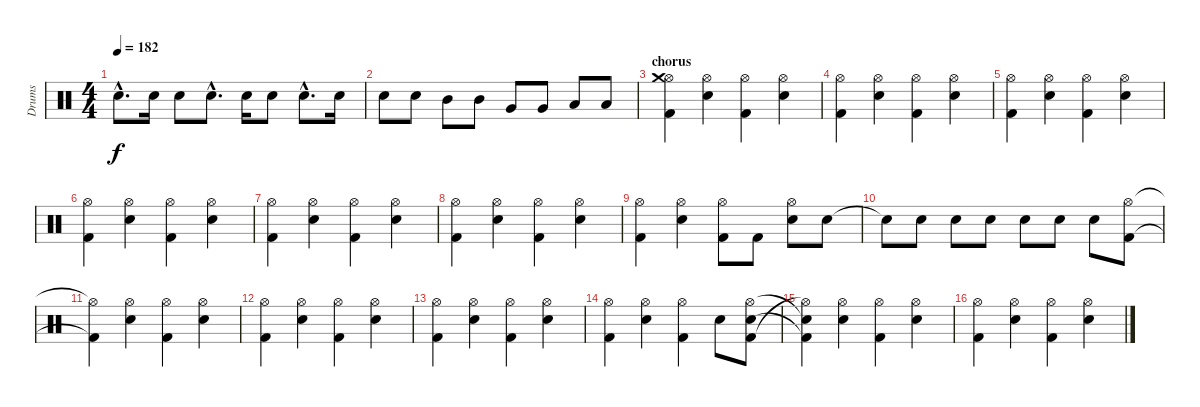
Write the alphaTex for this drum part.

\track ("Drums" "Drums") {instrument percussion}
\staff {score}
\articulation defaults
\ts (4 4)
\tempo 182
\clef neutral
\ks c "Electric Snare (hit)"{hac}.8{d dy f} "Snare (hit) 2".16 "Snare (hit) 2".8 "Snare (hit) 2"{hac}.8{d} "Electric Snare (hit)".16 "Snare (hit) 2".8 "Snare (hit) 2"{hac}.8{d} "Snare (hit) 2".16
|
"Electric Snare (hit)".8 "Electric Snare (hit)".8 "Mid Tom (hit)".8 "Mid Tom (hit)".8 "Very Low Tom (hit)".8 "Very Low Tom (hit)".8 "Low Floor Tom (hit)".8 "Low Floor Tom (hit)".8 |
\section ("" "chorus")
("Kick (hit) 2" "Hi-Hat (open)" "Crash medium (hit)").4 ("Snare (hit) 2" "Hi-Hat (open)").4 ("Kick (hit) 2" "Hi-Hat (open)").4 ("Snare (hit) 2" "Hi-Hat (open)").4 |
("Kick (hit) 2" "Hi-Hat (open)").4 ("Snare (hit) 2" "Hi-Hat (open)").4 ("Kick (hit) 2" "Hi-Hat (open)").4 ("Snare (hit) 2" "Hi-Hat (open)").4 |
("Kick (hit) 2" "Hi-Hat (open)").4 ("Snare (hit) 2" "Hi-Hat (open)").4 ("Kick (hit) 2" "Hi-Hat (open)").4 ("Snare (hit) 2" "Hi-Hat (open)").4 |
("Kick (hit) 2" "Hi-Hat (open)").4 ("Snare (hit) 2" "Hi-Hat (open)").4 ("Kick (hit) 2" "Hi-Hat (open)").4 ("Snare (hit) 2" "Hi-Hat (open)").4 |
("Kick (hit) 2" "Hi-Hat (open)").4 ("Snare (hit) 2" "Hi-Hat (open)").4 ("Kick (hit) 2" "Hi-Hat (open)").4 ("Snare (hit) 2" "Hi-Hat (open)").4 |
("Kick (hit) 2" "Hi-Hat (open)").4 ("Snare (hit) 2" "Hi-Hat (open)").4 ("Kick (hit) 2" "Hi-Hat (open)").4 ("Snare (hit) 2" "Hi-Hat (open)").4 |
("Kick (hit) 2" "Hi-Hat (open)").4 ("Snare (hit) 2" "Hi-Hat (open)").4 ("Kick (hit) 2" "Hi-Hat (open)").8 "Kick (hit) 2".8 ("Snare (hit) 2" "Hi-Hat (open)").8 "Snare (hit) 2".8 |
"Snare (hit)"{t}.8 "Electric Snare (hit)".8 "Electric Snare (hit)".8 "Electric Snare (hit)".8 "Electric Snare (hit)".8 "Electric Snare (hit)".8 "Electric Snare (hit)".8 ("Hi-Hat (open)" "Kick (hit) 2").8 |
("Hi-Hat (open)"{t} "Kick (hit) 2"{t}).4 ("Snare (hit) 2" "Hi-Hat (open)").4 ("Kick (hit) 2" "Hi-Hat (open)").4 ("Snare (hit) 2" "Hi-Hat (open)").4 |
("Kick (hit) 2" "Hi-Hat (open)").4 ("Snare (hit) 2" "Hi-Hat (open)").4 ("Kick (hit) 2" "Hi-Hat (open)").4 ("Snare (hit) 2" "Hi-Hat (open)").4 |
("Kick (hit) 2" "Hi-Hat (open)").4 ("Snare (hit) 2" "Hi-Hat (open)").4 ("Kick (hit) 2" "Hi-Hat (open)").4 ("Snare (hit) 2" "Hi-Hat (open)").4 |
("Hi-Hat (open)" "Kick (hit) 2").4 ("Hi-Hat (open)" "Snare (hit) 2").4 ("Hi-Hat (open)" "Kick (hit) 2").4 "Snare (hit) 2".8 ("Kick (hit) 2" "Snare (hit) 2" "Hi-Hat (open)").8 |
("Hi-Hat (open)"{t} "Kick (hit) 2"{t} "Snare (hit)"{t}).4 ("Snare (hit) 2" "Hi-Hat (open)").4 ("Kick (hit) 2" "Hi-Hat (open)").4 ("Snare (hit) 2" "Hi-Hat (open)").4 |
("Kick (hit) 2" "Hi-Hat (open)").4 ("Snare (hit) 2" "Hi-Hat (open)").4 ("Kick (hit) 2" "Hi-Hat (open)").4 ("Snare (hit) 2" "Hi-Hat (open)").4
